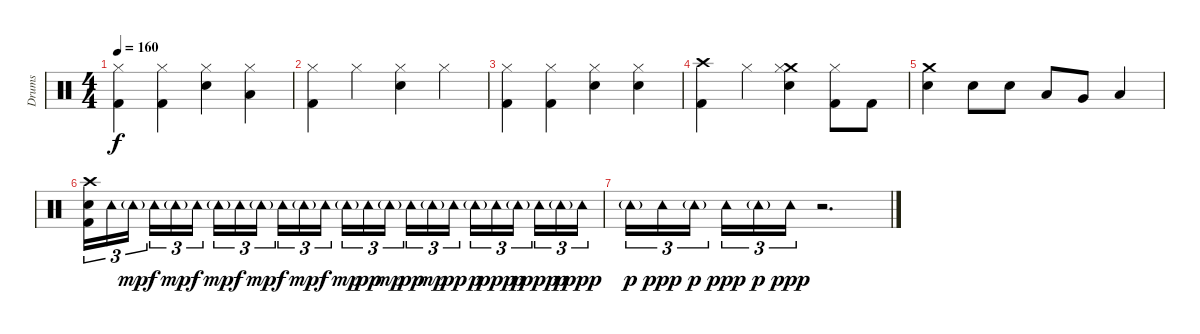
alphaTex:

\track ("Drums" "Drums") {instrument percussion}
\staff {score}
\articulation defaults
\ts (4 4)
\tempo 160
\clef neutral
\ks c
("Hi-Hat (closed)" "Kick (hit) 2").4{dy f} ("Hi-Hat (closed)" "Kick (hit) 2").4 ("Hi-Hat (closed)" "Snare (hit) 2").4 ("Hi-Hat (closed)" "Low Tom (hit)").4 |
("Hi-Hat (closed)" "Kick (hit) 2").4 "Hi-Hat (closed)".4 ("Hi-Hat (closed)" "Snare (hit) 2").4 "Hi-Hat (closed)".4 |
("Hi-Hat (closed)" "Kick (hit) 2").4 ("Hi-Hat (closed)" "Kick (hit) 2").4 ("Hi-Hat (closed)" "Snare (hit) 2").4 ("Hi-Hat (closed)" "Snare (hit) 2").4 |
("Crash high (hit)" "Kick (hit) 2").4 "Hi-Hat (closed)".4 ("Crash medium (hit)" "Hi-Hat (closed)" "Snare (hit) 2").4 ("Hi-Hat (closed)" "Kick (hit) 2").8 "Kick (hit) 2".8 |
("Crash medium (hit)" "Snare (hit) 2").4 "Snare (hit) 2".8 "Snare (hit) 2".8 "Low Tom (hit)".8 "Very Low Tom (hit)".8 "Low Floor Tom (hit)".4 |
("Crash high (hit)" "Snare (hit) 2" "Kick (hit) 2").16{tu (3 2)} "Tambourine (hit)".16{tu (3 2)} "Tambourine (hit)"{g}.16{tu (3 2) dy mp beam splitsecondary} "Tambourine (hit)".16{tu (3 2) dy f} "Tambourine (hit)"{g}.16{tu (3 2) dy mp} "Tambourine (hit)".16{tu (3 2) dy f} "Tambourine (hit)"{g}.16{tu (3 2) dy mp} "Tambourine (hit)".16{tu (3 2) dy f} "Tambourine (hit)"{g}.16{tu (3 2) dy mp beam splitsecondary} "Tambourine (hit)".16{tu (3 2) dy f} "Tambourine (hit)"{g}.16{tu (3 2) dy mp} "Tambourine (hit)".16{tu (3 2) dy f} "Tambourine (hit)"{g}.16{tu (3 2) dy mp} "Tambourine (hit)".16{tu (3 2) dy pp} "Tambourine (hit)"{g}.16{tu (3 2) dy mp beam splitsecondary} "Tambourine (hit)".16{tu (3 2) dy pp} "Tambourine (hit)"{g}.16{tu (3 2) dy mp} "Tambourine (hit)".16{tu (3 2) dy pp} "Tambourine (hit)"{g}.16{tu (3 2) dy p} "Tambourine (hit)".16{tu (3 2) dy ppp} "Tambourine (hit)"{g}.16{tu (3 2) dy p beam splitsecondary} "Tambourine (hit)".16{tu (3 2) dy ppp} "Tambourine (hit)"{g}.16{tu (3 2) dy p} "Tambourine (hit)".16{tu (3 2) dy ppp} |
"Tambourine (hit)"{g}.16{tu (3 2) dy p} "Tambourine (hit)".16{tu (3 2) dy ppp} "Tambourine (hit)"{g}.16{tu (3 2) dy p beam splitsecondary} "Tambourine (hit)".16{tu (3 2) dy ppp} "Tambourine (hit)"{g}.16{tu (3 2) dy p} "Tambourine (hit)".16{tu (3 2) dy ppp} r.2{d}
